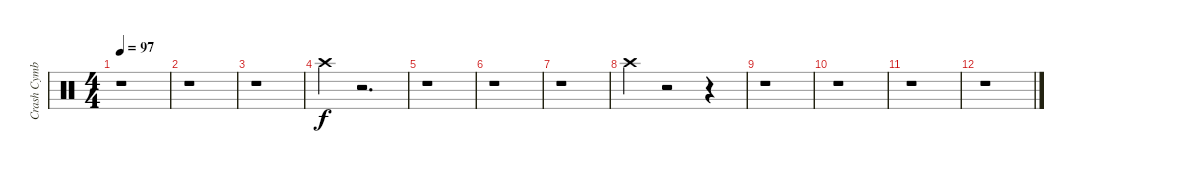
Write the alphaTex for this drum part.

\track ("Crash Cymbal" "Crash Cymb") {instrument percussion}
\staff {score}
\articulation defaults
\ts (4 4)
\tempo 97
\clef neutral
\ks c
r.1{dy f} |
r.1 |
r.1 |
"Crash high (hit)".4 r.2{d} |
r.1 |
r.1 |
r.1 |
"Crash high (hit)".4 r.2 r.4 |
r.1 |
r.1 |
r.1 |
r.1
